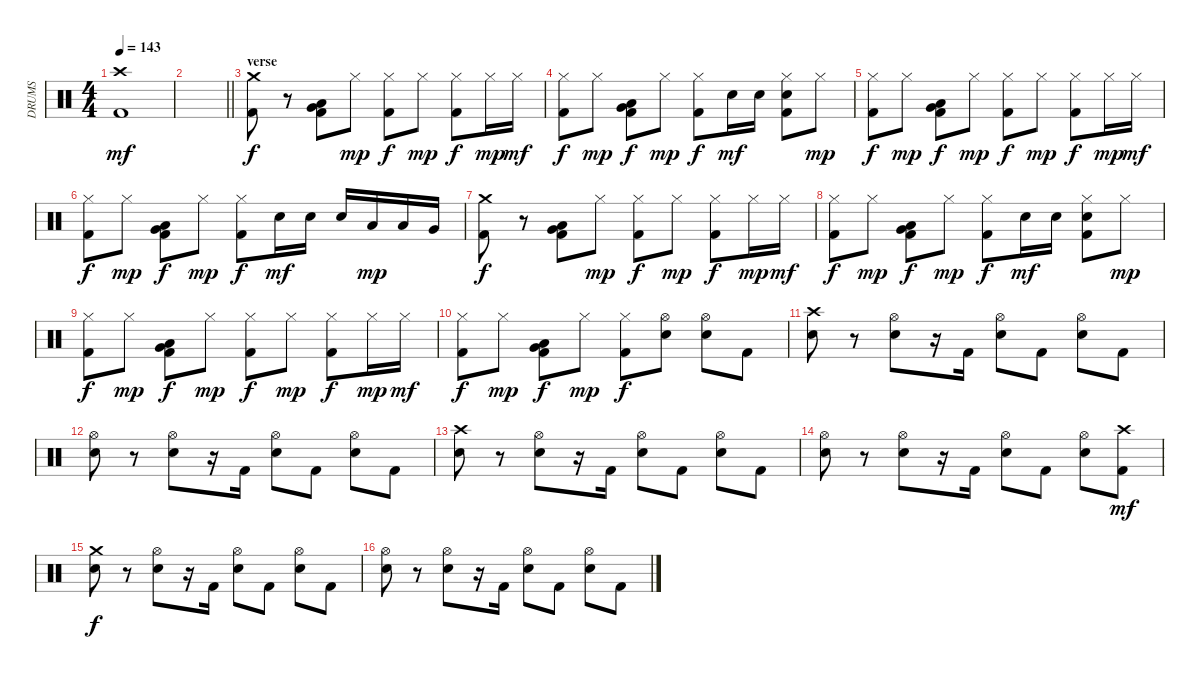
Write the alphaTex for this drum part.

\track ("DRUMS" "DRUMS") {instrument percussion}
\staff {score}
\articulation defaults
\ts (4 4)
\tempo 143
\clef neutral
\ks c
("Crash high (hit)" "Kick (hit) 2").1{dy mf} |
\barLineRight lightlight
|
\section ("" "verse")
("Crash medium (hit)" "Kick (hit) 2").8{dy f} r.8 ("Very Low Tom (hit)" "Low Tom (hit)" "Kick (hit) 2").8 "Hi-Hat (closed)".8{dy mp} ("Hi-Hat (closed)" "Kick (hit) 2").8{dy f} "Hi-Hat (closed)".8{dy mp} ("Hi-Hat (closed)" "Kick (hit) 2").8{dy f} "Hi-Hat (closed)".16{dy mp} "Hi-Hat (closed)".16{dy mf} |
("Hi-Hat (closed)" "Kick (hit) 2").8{dy f} "Hi-Hat (closed)".8{dy mp} ("Very Low Tom (hit)" "Low Tom (hit)" "Kick (hit) 2").8{dy f} "Hi-Hat (closed)".8{dy mp} ("Hi-Hat (closed)" "Kick (hit) 2").8{dy f} "Electric Snare (hit)".16{dy mf} "Electric Snare (hit)".16 ("Hi-Hat (closed)" "Electric Snare (hit)" "Kick (hit) 2").8 "Hi-Hat (closed)".8{dy mp} |
("Hi-Hat (closed)" "Kick (hit) 2").8{dy f} "Hi-Hat (closed)".8{dy mp} ("Very Low Tom (hit)" "Low Tom (hit)" "Kick (hit) 2").8{dy f} "Hi-Hat (closed)".8{dy mp} ("Hi-Hat (closed)" "Kick (hit) 2").8{dy f} "Hi-Hat (closed)".8{dy mp} ("Hi-Hat (closed)" "Kick (hit) 2").8{dy f} "Hi-Hat (closed)".16{dy mp} "Hi-Hat (closed)".16{dy mf} |
("Hi-Hat (closed)" "Kick (hit) 2").8{dy f} "Hi-Hat (closed)".8{dy mp} ("Very Low Tom (hit)" "Low Tom (hit)" "Kick (hit) 2").8{dy f} "Hi-Hat (closed)".8{dy mp} ("Hi-Hat (closed)" "Kick (hit) 2").8{dy f} "Electric Snare (hit)".16{dy mf} "Electric Snare (hit)".16 "Electric Snare (hit)".16 "Low Tom (hit)".16{dy mp} "Low Tom (hit)".16 "Very Low Tom (hit)".16 |
("Crash medium (hit)" "Kick (hit) 2").8{dy f} r.8 ("Very Low Tom (hit)" "Low Tom (hit)" "Kick (hit) 2").8 "Hi-Hat (closed)".8{dy mp} ("Hi-Hat (closed)" "Kick (hit) 2").8{dy f} "Hi-Hat (closed)".8{dy mp} ("Hi-Hat (closed)" "Kick (hit) 2").8{dy f} "Hi-Hat (closed)".16{dy mp} "Hi-Hat (closed)".16{dy mf} |
("Hi-Hat (closed)" "Kick (hit) 2").8{dy f} "Hi-Hat (closed)".8{dy mp} ("Very Low Tom (hit)" "Low Tom (hit)" "Kick (hit) 2").8{dy f} "Hi-Hat (closed)".8{dy mp} ("Hi-Hat (closed)" "Kick (hit) 2").8{dy f} "Electric Snare (hit)".16{dy mf} "Electric Snare (hit)".16 ("Hi-Hat (closed)" "Electric Snare (hit)" "Kick (hit) 2").8 "Hi-Hat (closed)".8{dy mp} |
("Hi-Hat (closed)" "Kick (hit) 2").8{dy f} "Hi-Hat (closed)".8{dy mp} ("Very Low Tom (hit)" "Low Tom (hit)" "Kick (hit) 2").8{dy f} "Hi-Hat (closed)".8{dy mp} ("Hi-Hat (closed)" "Kick (hit) 2").8{dy f} "Hi-Hat (closed)".8{dy mp} ("Hi-Hat (closed)" "Kick (hit) 2").8{dy f} "Hi-Hat (closed)".16{dy mp} "Hi-Hat (closed)".16{dy mf} |
("Hi-Hat (closed)" "Kick (hit) 2").8{dy f} "Hi-Hat (closed)".8{dy mp} ("Very Low Tom (hit)" "Low Tom (hit)" "Kick (hit) 2").8{dy f} "Hi-Hat (closed)".8{dy mp} ("Hi-Hat (closed)" "Kick (hit) 2").8{dy f} ("Hi-Hat (open)" "Electric Snare (hit)").8 ("Hi-Hat (open)" "Electric Snare (hit)").8 "Kick (hit) 2".8 |
("Crash high (hit)" "Electric Snare (hit)").8 r.8 ("Hi-Hat (open)" "Electric Snare (hit)").8 r.16 "Kick (hit) 2".16 ("Hi-Hat (open)" "Electric Snare (hit)").8 "Kick (hit) 2".8 ("Hi-Hat (open)" "Electric Snare (hit)").8 "Kick (hit) 2".8 |
("Hi-Hat (open)" "Electric Snare (hit)").8 r.8 ("Hi-Hat (open)" "Electric Snare (hit)").8 r.16 "Kick (hit) 2".16 ("Hi-Hat (open)" "Electric Snare (hit)").8 "Kick (hit) 2".8 ("Hi-Hat (open)" "Electric Snare (hit)").8 "Kick (hit) 2".8 |
("Crash high (hit)" "Electric Snare (hit)").8 r.8 ("Hi-Hat (open)" "Electric Snare (hit)").8 r.16 "Kick (hit) 2".16 ("Hi-Hat (open)" "Electric Snare (hit)").8 "Kick (hit) 2".8 ("Hi-Hat (open)" "Electric Snare (hit)").8 "Kick (hit) 2".8 |
("Hi-Hat (open)" "Electric Snare (hit)").8 r.8 ("Hi-Hat (open)" "Electric Snare (hit)").8 r.16 "Kick (hit) 2".16 ("Hi-Hat (open)" "Electric Snare (hit)").8 "Kick (hit) 2".8 ("Hi-Hat (open)" "Electric Snare (hit)").8 ("Crash high (hit)" "Kick (hit) 2").8{dy mf} |
("Crash medium (hit)" "Electric Snare (hit)").8{dy f} r.8 ("Hi-Hat (open)" "Electric Snare (hit)").8 r.16 "Kick (hit) 2".16 ("Hi-Hat (open)" "Electric Snare (hit)").8 "Kick (hit) 2".8 ("Hi-Hat (open)" "Electric Snare (hit)").8 "Kick (hit) 2".8 |
("Hi-Hat (open)" "Electric Snare (hit)").8 r.8 ("Hi-Hat (open)" "Electric Snare (hit)").8 r.16 "Kick (hit) 2".16 ("Hi-Hat (open)" "Electric Snare (hit)").8 "Kick (hit) 2".8 ("Hi-Hat (open)" "Electric Snare (hit)").8 "Kick (hit) 2".8
